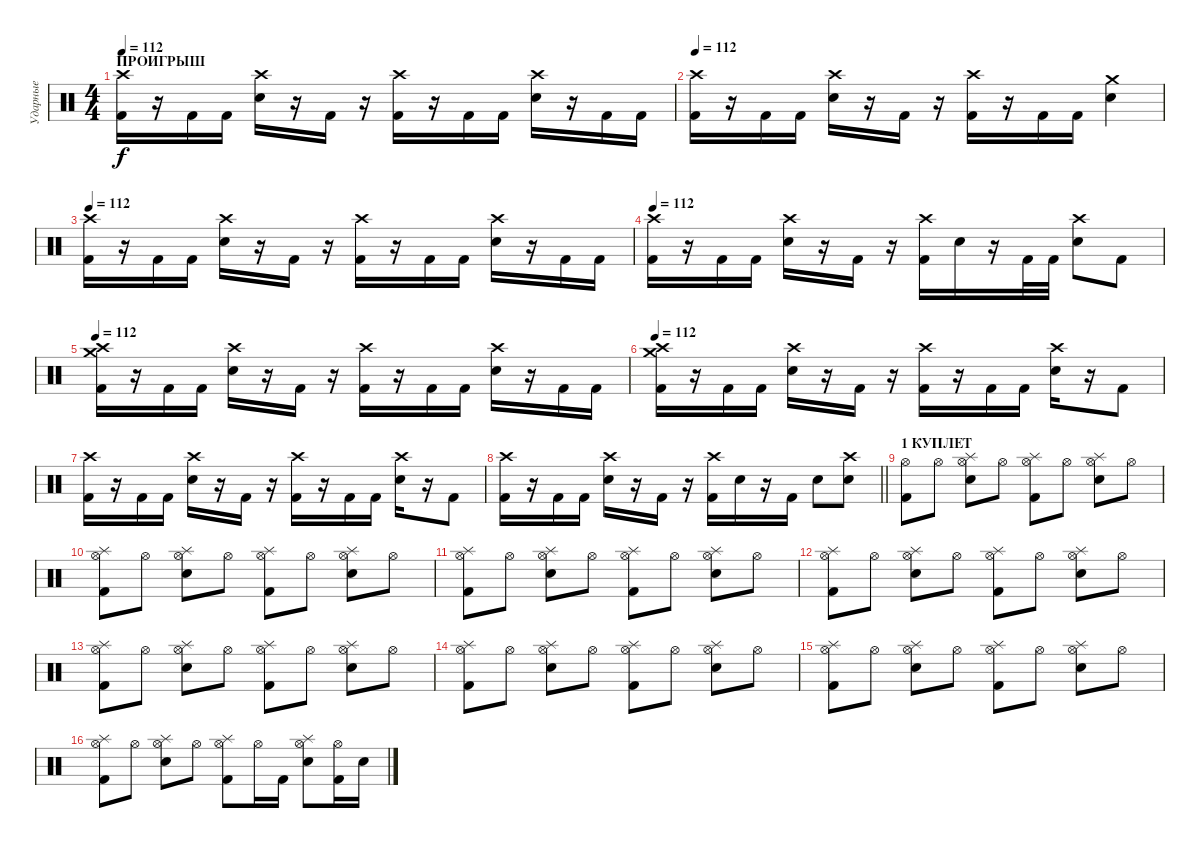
\track ("Ударные" "Ударные") {instrument percussion}
\staff {score}
\articulation defaults
\ts (4 4)
\section ("" "ПРОИГРЫШ")
\tempo 112
\clef neutral
\ks c
("Crash high (hit)" "Kick (hit) 2").16{dy f} r.16 "Kick (hit) 2".16 "Kick (hit) 2".16 ("Crash high (hit)" "Snare (hit) 2").16 r.16 "Kick (hit) 2".16 r.16 ("Crash high (hit)" "Kick (hit) 2").16 r.16 "Kick (hit) 2".16 "Kick (hit) 2".16 ("Crash high (hit)" "Snare (hit) 2").16 r.16 "Kick (hit) 2".16 "Kick (hit) 2".16 |
\tempo 112
("Crash high (hit)" "Kick (hit) 2").16 r.16 "Kick (hit) 2".16 "Kick (hit) 2".16 ("Crash high (hit)" "Snare (hit) 2").16 r.16 "Kick (hit) 2".16 r.16 ("Crash high (hit)" "Kick (hit) 2").16 r.16 "Kick (hit) 2".16 "Kick (hit) 2".16 ("Crash medium (hit)" "Snare (hit) 2").4 |
\tempo 112
("Crash high (hit)" "Kick (hit) 2").16 r.16 "Kick (hit) 2".16 "Kick (hit) 2".16 ("Crash high (hit)" "Snare (hit) 2").16 r.16 "Kick (hit) 2".16 r.16 ("Crash high (hit)" "Kick (hit) 2").16 r.16 "Kick (hit) 2".16 "Kick (hit) 2".16 ("Crash high (hit)" "Snare (hit) 2").16 r.16 "Kick (hit) 2".16 "Kick (hit) 2".16 |
\tempo 112
("Crash high (hit)" "Kick (hit) 2").16 r.16 "Kick (hit) 2".16 "Kick (hit) 2".16 ("Crash high (hit)" "Snare (hit) 2").16 r.16 "Kick (hit) 2".16 r.16 ("Crash high (hit)" "Kick (hit) 2").16 "Snare (hit) 2".16 r.16 "Kick (hit) 2".32 "Kick (hit) 2".32 ("Crash high (hit)" "Snare (hit) 2").8 "Kick (hit) 2".8 |
\tempo 112
("Crash high (hit)" "Crash medium (hit)" "Kick (hit) 2").16 r.16 "Kick (hit) 2".16 "Kick (hit) 2".16 ("Crash high (hit)" "Snare (hit) 2").16 r.16 "Kick (hit) 2".16 r.16 ("Crash high (hit)" "Kick (hit) 2").16 r.16 "Kick (hit) 2".16 "Kick (hit) 2".16 ("Crash high (hit)" "Snare (hit) 2").16 r.16 "Kick (hit) 2".16 "Kick (hit) 2".16 |
\tempo 112
("Crash high (hit)" "Crash medium (hit)" "Kick (hit) 2").16 r.16 "Kick (hit) 2".16 "Kick (hit) 2".16 ("Crash high (hit)" "Snare (hit) 2").16 r.16 "Kick (hit) 2".16 r.16 ("Crash high (hit)" "Kick (hit) 2").16 r.16 "Kick (hit) 2".16 "Kick (hit) 2".16 ("Crash high (hit)" "Snare (hit) 2").16 r.16 "Kick (hit) 2".8 |
("Crash high (hit)" "Kick (hit) 2").16 r.16 "Kick (hit) 2".16 "Kick (hit) 2".16 ("Crash high (hit)" "Snare (hit) 2").16 r.16 "Kick (hit) 2".16 r.16 ("Crash high (hit)" "Kick (hit) 2").16 r.16 "Kick (hit) 2".16 "Kick (hit) 2".16 ("Crash high (hit)" "Snare (hit) 2").16 r.16 "Kick (hit) 2".8 |
\barLineRight lightlight
("Crash high (hit)" "Kick (hit) 2").16 r.16 "Kick (hit) 2".16 "Kick (hit) 2".16 ("Crash high (hit)" "Snare (hit) 2").16 r.16 "Kick (hit) 2".16 r.16 ("Crash high (hit)" "Kick (hit) 2").16 "Snare (hit) 2".16 r.16 "Kick (hit) 2".16 "Snare (hit) 2".8 ("Crash high (hit)" "Snare (hit) 2").8 |
\section ("" "1 КУПЛЕТ")
("Hi-Hat (open)" "Kick (hit) 2").8 "Hi-Hat (open)".8 ("Hi-Hat (open)" "Splash (hit)" "Snare (hit) 2").8 "Hi-Hat (open)".8 ("Hi-Hat (open)" "Splash (hit)" "Kick (hit) 2").8 "Hi-Hat (open)".8 ("Hi-Hat (open)" "Splash (hit)" "Snare (hit) 2").8 "Hi-Hat (open)".8 |
("Hi-Hat (open)" "Splash (hit)" "Kick (hit) 2").8 "Hi-Hat (open)".8 ("Hi-Hat (open)" "Splash (hit)" "Snare (hit) 2").8 "Hi-Hat (open)".8 ("Hi-Hat (open)" "Splash (hit)" "Kick (hit) 2").8 "Hi-Hat (open)".8 ("Hi-Hat (open)" "Splash (hit)" "Snare (hit) 2").8 "Hi-Hat (open)".8 |
("Hi-Hat (open)" "Splash (hit)" "Kick (hit) 2").8 "Hi-Hat (open)".8 ("Hi-Hat (open)" "Splash (hit)" "Snare (hit) 2").8 "Hi-Hat (open)".8 ("Hi-Hat (open)" "Splash (hit)" "Kick (hit) 2").8 "Hi-Hat (open)".8 ("Hi-Hat (open)" "Splash (hit)" "Snare (hit) 2").8 "Hi-Hat (open)".8 |
("Hi-Hat (open)" "Splash (hit)" "Kick (hit) 2").8 "Hi-Hat (open)".8 ("Hi-Hat (open)" "Splash (hit)" "Snare (hit) 2").8 "Hi-Hat (open)".8 ("Hi-Hat (open)" "Splash (hit)" "Kick (hit) 2").8 "Hi-Hat (open)".8 ("Hi-Hat (open)" "Splash (hit)" "Snare (hit) 2").8 "Hi-Hat (open)".8 |
("Hi-Hat (open)" "Splash (hit)" "Kick (hit) 2").8 "Hi-Hat (open)".8 ("Hi-Hat (open)" "Splash (hit)" "Snare (hit) 2").8 "Hi-Hat (open)".8 ("Hi-Hat (open)" "Splash (hit)" "Kick (hit) 2").8 "Hi-Hat (open)".8 ("Hi-Hat (open)" "Splash (hit)" "Snare (hit) 2").8 "Hi-Hat (open)".8 |
("Hi-Hat (open)" "Splash (hit)" "Kick (hit) 2").8 "Hi-Hat (open)".8 ("Hi-Hat (open)" "Splash (hit)" "Snare (hit) 2").8 "Hi-Hat (open)".8 ("Hi-Hat (open)" "Splash (hit)" "Kick (hit) 2").8 "Hi-Hat (open)".8 ("Hi-Hat (open)" "Splash (hit)" "Snare (hit) 2").8 "Hi-Hat (open)".8 |
("Hi-Hat (open)" "Splash (hit)" "Kick (hit) 2").8 "Hi-Hat (open)".8 ("Hi-Hat (open)" "Splash (hit)" "Snare (hit) 2").8 "Hi-Hat (open)".8 ("Hi-Hat (open)" "Splash (hit)" "Kick (hit) 2").8 "Hi-Hat (open)".8 ("Hi-Hat (open)" "Splash (hit)" "Snare (hit) 2").8 "Hi-Hat (open)".8 |
("Hi-Hat (open)" "Splash (hit)" "Kick (hit) 2").8 "Hi-Hat (open)".8 ("Hi-Hat (open)" "Splash (hit)" "Snare (hit) 2").8 "Hi-Hat (open)".8 ("Hi-Hat (open)" "Splash (hit)" "Kick (hit) 2").8 "Hi-Hat (open)".16 "Kick (hit) 2".16 ("Hi-Hat (open)" "Splash (hit)" "Snare (hit) 2").8 ("Hi-Hat (open)" "Kick (hit) 2").16 "Snare (hit) 2".16
